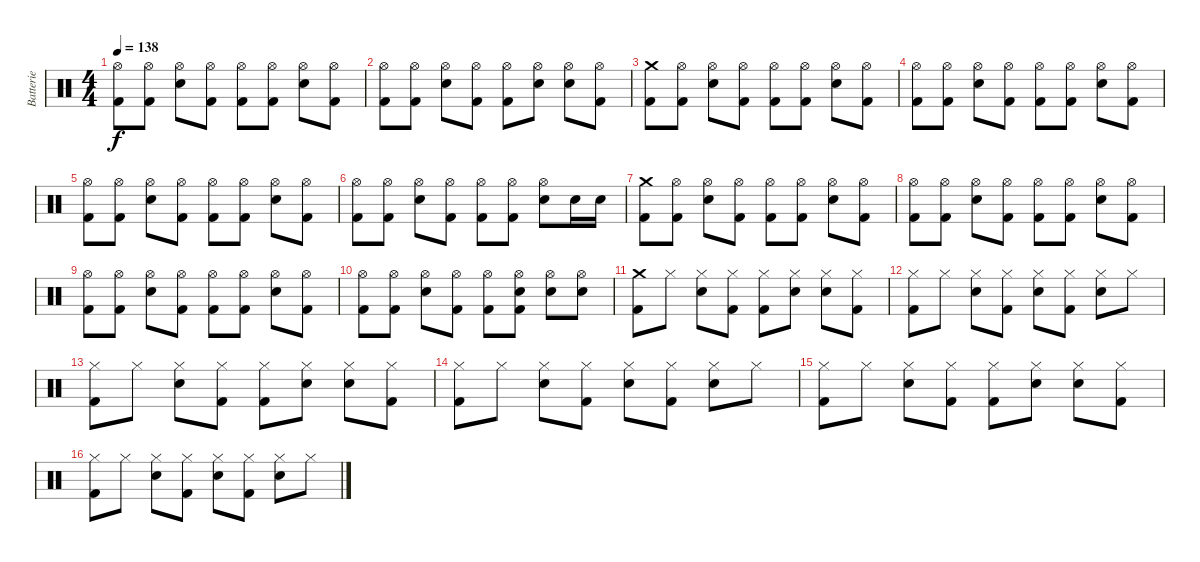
\track ("Batterie" "Batterie") {instrument percussion}
\staff {score}
\articulation defaults
\ts (4 4)
\tempo 138
\clef neutral
\ks c
("Hi-Hat (open)" "Kick (hit) 2").8{dy f} ("Hi-Hat (open)" "Kick (hit) 2").8 ("Hi-Hat (open)" "Electric Snare (hit)").8 ("Hi-Hat (open)" "Kick (hit) 2").8 ("Hi-Hat (open)" "Kick (hit) 2").8 ("Hi-Hat (open)" "Kick (hit) 2").8 ("Hi-Hat (open)" "Electric Snare (hit)").8 ("Hi-Hat (open)" "Kick (hit) 2").8 |
("Hi-Hat (open)" "Kick (hit) 2").8 ("Hi-Hat (open)" "Kick (hit) 2").8 ("Hi-Hat (open)" "Electric Snare (hit)").8 ("Hi-Hat (open)" "Kick (hit) 2").8 ("Hi-Hat (open)" "Kick (hit) 2").8 ("Hi-Hat (open)" "Electric Snare (hit)").8 ("Hi-Hat (open)" "Electric Snare (hit)").8 ("Hi-Hat (open)" "Kick (hit) 2").8 |
("Crash medium (hit)" "Kick (hit) 2").8 ("Hi-Hat (open)" "Kick (hit) 2").8 ("Hi-Hat (open)" "Electric Snare (hit)").8 ("Hi-Hat (open)" "Kick (hit) 2").8 ("Hi-Hat (open)" "Kick (hit) 2").8 ("Hi-Hat (open)" "Kick (hit) 2").8 ("Hi-Hat (open)" "Electric Snare (hit)").8 ("Hi-Hat (open)" "Kick (hit) 2").8 |
("Hi-Hat (open)" "Kick (hit) 2").8 ("Hi-Hat (open)" "Kick (hit) 2").8 ("Hi-Hat (open)" "Electric Snare (hit)").8 ("Hi-Hat (open)" "Kick (hit) 2").8 ("Hi-Hat (open)" "Kick (hit) 2").8 ("Hi-Hat (open)" "Kick (hit) 2").8 ("Hi-Hat (open)" "Electric Snare (hit)").8 ("Hi-Hat (open)" "Kick (hit) 2").8 |
("Hi-Hat (open)" "Kick (hit) 2").8 ("Hi-Hat (open)" "Kick (hit) 2").8 ("Hi-Hat (open)" "Electric Snare (hit)").8 ("Hi-Hat (open)" "Kick (hit) 2").8 ("Hi-Hat (open)" "Kick (hit) 2").8 ("Hi-Hat (open)" "Kick (hit) 2").8 ("Hi-Hat (open)" "Electric Snare (hit)").8 ("Hi-Hat (open)" "Kick (hit) 2").8 |
("Hi-Hat (open)" "Kick (hit) 2").8 ("Hi-Hat (open)" "Kick (hit) 2").8 ("Hi-Hat (open)" "Electric Snare (hit)").8 ("Hi-Hat (open)" "Kick (hit) 2").8 ("Hi-Hat (open)" "Kick (hit) 2").8 ("Hi-Hat (open)" "Kick (hit) 2").8 ("Hi-Hat (open)" "Electric Snare (hit)").8 "Electric Snare (hit)".16 "Electric Snare (hit)".16 |
("Crash medium (hit)" "Kick (hit) 2").8 ("Hi-Hat (open)" "Kick (hit) 2").8 ("Hi-Hat (open)" "Electric Snare (hit)").8 ("Hi-Hat (open)" "Kick (hit) 2").8 ("Hi-Hat (open)" "Kick (hit) 2").8 ("Hi-Hat (open)" "Kick (hit) 2").8 ("Hi-Hat (open)" "Electric Snare (hit)").8 ("Hi-Hat (open)" "Kick (hit) 2").8 |
("Hi-Hat (open)" "Kick (hit) 2").8 ("Hi-Hat (open)" "Kick (hit) 2").8 ("Hi-Hat (open)" "Electric Snare (hit)").8 ("Hi-Hat (open)" "Kick (hit) 2").8 ("Hi-Hat (open)" "Kick (hit) 2").8 ("Hi-Hat (open)" "Kick (hit) 2").8 ("Hi-Hat (open)" "Electric Snare (hit)").8 ("Hi-Hat (open)" "Kick (hit) 2").8 |
("Hi-Hat (open)" "Kick (hit) 2").8 ("Hi-Hat (open)" "Kick (hit) 2").8 ("Hi-Hat (open)" "Electric Snare (hit)").8 ("Hi-Hat (open)" "Kick (hit) 2").8 ("Hi-Hat (open)" "Kick (hit) 2").8 ("Hi-Hat (open)" "Kick (hit) 2").8 ("Hi-Hat (open)" "Electric Snare (hit)").8 ("Hi-Hat (open)" "Kick (hit) 2").8 |
("Hi-Hat (open)" "Kick (hit) 2").8 ("Hi-Hat (open)" "Kick (hit) 2").8 ("Hi-Hat (open)" "Electric Snare (hit)").8 ("Hi-Hat (open)" "Kick (hit) 2").8 ("Hi-Hat (open)" "Kick (hit) 2").8 ("Hi-Hat (open)" "Electric Snare (hit)" "Kick (hit) 2").8 ("Hi-Hat (open)" "Electric Snare (hit)").8 ("Hi-Hat (open)" "Electric Snare (hit)").8 |
("Crash medium (hit)" "Kick (hit) 2").8 "Hi-Hat (closed)".8 ("Hi-Hat (closed)" "Electric Snare (hit)").8 ("Hi-Hat (closed)" "Kick (hit) 2").8 ("Hi-Hat (closed)" "Kick (hit) 2").8 ("Hi-Hat (closed)" "Electric Snare (hit)").8 ("Hi-Hat (closed)" "Electric Snare (hit)").8 ("Hi-Hat (closed)" "Kick (hit) 2").8 |
("Hi-Hat (closed)" "Kick (hit) 2").8 "Hi-Hat (closed)".8 ("Hi-Hat (closed)" "Electric Snare (hit)").8 ("Hi-Hat (closed)" "Kick (hit) 2").8 ("Hi-Hat (closed)" "Electric Snare (hit)").8 ("Hi-Hat (closed)" "Kick (hit) 2").8 ("Hi-Hat (closed)" "Electric Snare (hit)").8 "Hi-Hat (closed)".8 |
("Hi-Hat (closed)" "Kick (hit) 2").8 "Hi-Hat (closed)".8 ("Hi-Hat (closed)" "Electric Snare (hit)").8 ("Hi-Hat (closed)" "Kick (hit) 2").8 ("Hi-Hat (closed)" "Kick (hit) 2").8 ("Hi-Hat (closed)" "Electric Snare (hit)").8 ("Hi-Hat (closed)" "Electric Snare (hit)").8 ("Hi-Hat (closed)" "Kick (hit) 2").8 |
("Hi-Hat (closed)" "Kick (hit) 2").8 "Hi-Hat (closed)".8 ("Hi-Hat (closed)" "Electric Snare (hit)").8 ("Hi-Hat (closed)" "Kick (hit) 2").8 ("Hi-Hat (closed)" "Electric Snare (hit)").8 ("Hi-Hat (closed)" "Kick (hit) 2").8 ("Hi-Hat (closed)" "Electric Snare (hit)").8 "Hi-Hat (closed)".8 |
("Hi-Hat (closed)" "Kick (hit) 2").8 "Hi-Hat (closed)".8 ("Hi-Hat (closed)" "Electric Snare (hit)").8 ("Hi-Hat (closed)" "Kick (hit) 2").8 ("Hi-Hat (closed)" "Kick (hit) 2").8 ("Hi-Hat (closed)" "Electric Snare (hit)").8 ("Hi-Hat (closed)" "Electric Snare (hit)").8 ("Hi-Hat (closed)" "Kick (hit) 2").8 |
("Hi-Hat (closed)" "Kick (hit) 2").8 "Hi-Hat (closed)".8 ("Hi-Hat (closed)" "Electric Snare (hit)").8 ("Hi-Hat (closed)" "Kick (hit) 2").8 ("Hi-Hat (closed)" "Electric Snare (hit)").8 ("Hi-Hat (closed)" "Kick (hit) 2").8 ("Hi-Hat (closed)" "Electric Snare (hit)").8 "Hi-Hat (closed)".8
